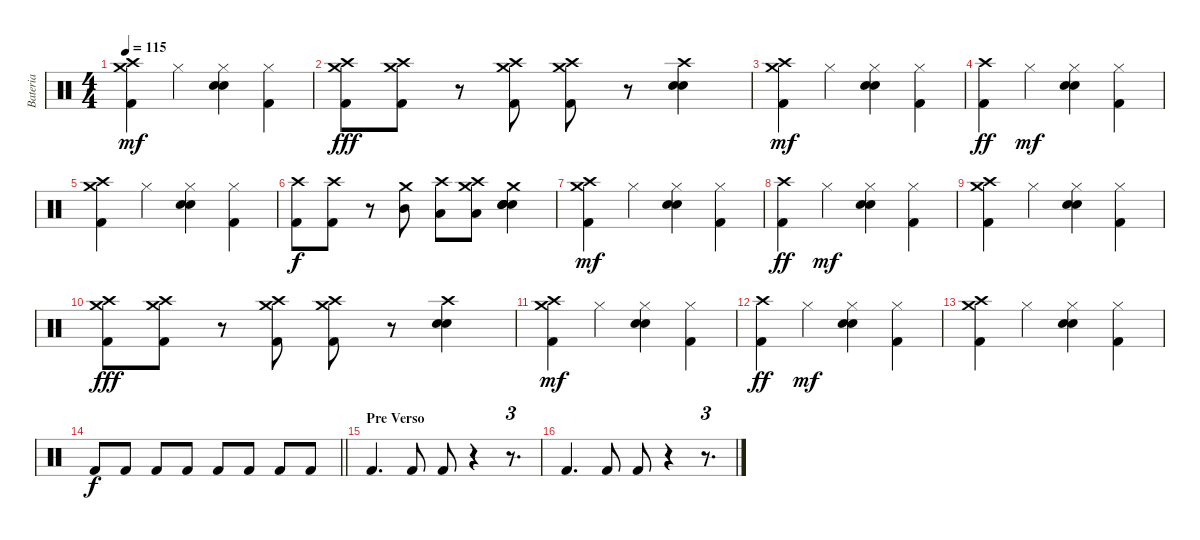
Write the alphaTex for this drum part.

\track ("Bateria" "Bateria") {instrument percussion}
\staff {score}
\articulation defaults
\ts (4 4)
\tempo 115
\clef neutral
\ks c
("Crash medium (hit)" "Kick (hit) 2" "Crash high (hit)").4{dy mf} "Hi-Hat (closed)".4 ("Hi-Hat (closed)" "Snare (hit) 2" "Electric Snare (hit)").4 ("Hi-Hat (closed)" "Kick (hit) 2").4 |
("Crash high (hit)" "Kick (hit) 2" "Crash medium (hit)").8{dy fff} ("Crash high (hit)" "Kick (hit) 2" "Crash medium (hit)").8 r.8 ("Crash high (hit)" "Kick (hit) 2" "Crash medium (hit)").8 ("Crash high (hit)" "Kick (hit) 2" "Crash medium (hit)").8 r.8 ("Crash high (hit)" "Snare (hit) 2" "Electric Snare (hit)").4 |
("Crash medium (hit)" "Kick (hit) 2" "Crash high (hit)").4{dy mf} "Hi-Hat (closed)".4 ("Hi-Hat (closed)" "Snare (hit) 2" "Electric Snare (hit)").4 ("Hi-Hat (closed)" "Kick (hit) 2").4 |
("Crash high (hit)" "Kick (hit) 2").4{dy ff} "Hi-Hat (closed)".4{dy mf} ("Hi-Hat (closed)" "Snare (hit) 2" "Electric Snare (hit)").4 ("Hi-Hat (closed)" "Kick (hit) 2").4 |
("Crash medium (hit)" "Kick (hit) 2" "Crash high (hit)").4 "Hi-Hat (closed)".4 ("Hi-Hat (closed)" "Snare (hit) 2" "Electric Snare (hit)").4 ("Hi-Hat (closed)" "Kick (hit) 2").4 |
("Kick (hit) 2" "Crash high (hit)").8{dy f} ("Kick (hit) 2" "Crash high (hit)").8 r.8 ("Mid Tom (hit)" "Crash medium (hit)").8 ("Low Tom (hit)" "Crash high (hit)").8 ("Low Tom (hit)" "Crash high (hit)" "Crash medium (hit)").8 ("Crash medium (hit)" "Snare (hit) 2" "Electric Snare (hit)" "Snare (hit) 2" "Electric Snare (hit)").4 |
("Crash medium (hit)" "Kick (hit) 2" "Crash high (hit)").4{dy mf} "Hi-Hat (closed)".4 ("Hi-Hat (closed)" "Snare (hit) 2" "Electric Snare (hit)").4 ("Hi-Hat (closed)" "Kick (hit) 2").4 |
("Crash high (hit)" "Kick (hit) 2").4{dy ff} "Hi-Hat (closed)".4{dy mf} ("Hi-Hat (closed)" "Snare (hit) 2" "Electric Snare (hit)").4 ("Hi-Hat (closed)" "Kick (hit) 2").4 |
("Crash medium (hit)" "Kick (hit) 2" "Crash high (hit)").4 "Hi-Hat (closed)".4 ("Hi-Hat (closed)" "Snare (hit) 2" "Electric Snare (hit)").4 ("Hi-Hat (closed)" "Kick (hit) 2").4 |
("Crash high (hit)" "Kick (hit) 2" "Crash medium (hit)").8{dy fff} ("Crash high (hit)" "Kick (hit) 2" "Crash medium (hit)").8 r.8 ("Crash high (hit)" "Kick (hit) 2" "Crash medium (hit)").8 ("Crash high (hit)" "Kick (hit) 2" "Crash medium (hit)").8 r.8 ("Crash high (hit)" "Snare (hit) 2" "Electric Snare (hit)").4 |
("Crash medium (hit)" "Kick (hit) 2" "Crash high (hit)").4{dy mf} "Hi-Hat (closed)".4 ("Hi-Hat (closed)" "Snare (hit) 2" "Electric Snare (hit)").4 ("Hi-Hat (closed)" "Kick (hit) 2").4 |
("Crash high (hit)" "Kick (hit) 2").4{dy ff} "Hi-Hat (closed)".4{dy mf} ("Hi-Hat (closed)" "Snare (hit) 2" "Electric Snare (hit)").4 ("Hi-Hat (closed)" "Kick (hit) 2").4 |
("Crash medium (hit)" "Kick (hit) 2" "Crash high (hit)").4 "Hi-Hat (closed)".4 ("Hi-Hat (closed)" "Snare (hit) 2" "Electric Snare (hit)").4 ("Hi-Hat (closed)" "Kick (hit) 2").4 |
\barLineRight lightlight "Kick (hit) 2".8{dy f} "Kick (hit) 2".8 "Kick (hit) 2".8 "Kick (hit) 2".8 "Kick (hit) 2".8 "Kick (hit) 2".8 "Kick (hit) 2".8 "Kick (hit) 2".8
|
\section ("" "Pre Verso")
"Kick (hit) 2".4{d} "Kick (hit) 2".8 "Kick (hit) 2".8 r.4 r.8{d tu (3 2)} |
"Kick (hit) 2".4{d} "Kick (hit) 2".8 "Kick (hit) 2".8 r.4 r.8{d tu (3 2)}
